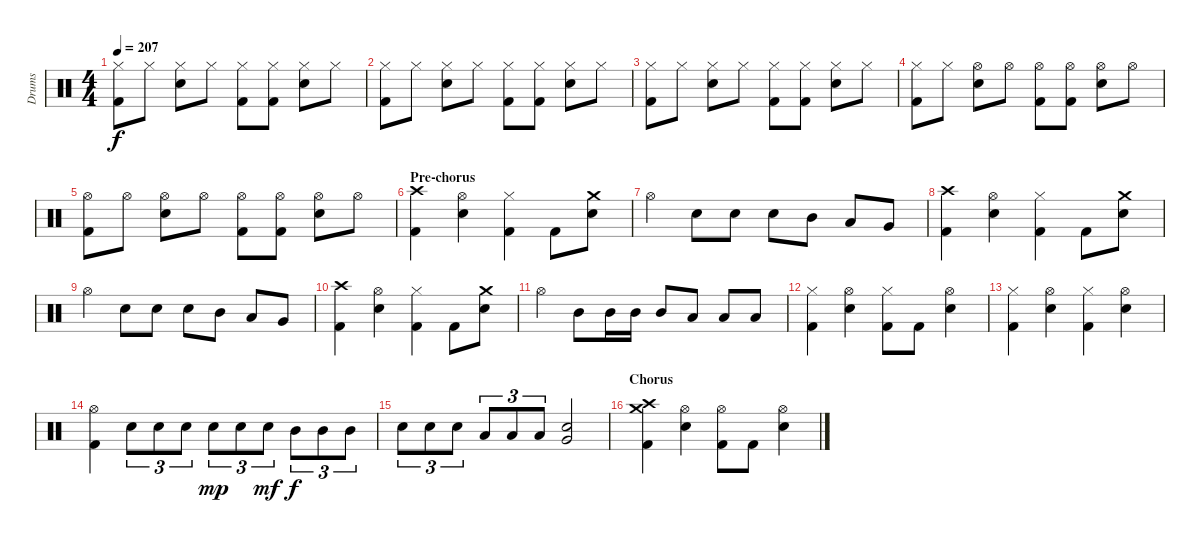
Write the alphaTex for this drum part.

\track ("Drums" "Drums") {instrument percussion}
\staff {score}
\articulation defaults
\ts (4 4)
\tempo 207
\clef neutral
\ks c
("Hi-Hat (closed)" "Kick (hit) 2").8{dy f} "Hi-Hat (closed)".8 ("Hi-Hat (closed)" "Snare (hit) 2").8 "Hi-Hat (closed)".8 ("Hi-Hat (closed)" "Kick (hit) 2").8 ("Hi-Hat (closed)" "Kick (hit) 2").8 ("Hi-Hat (closed)" "Snare (hit) 2").8 "Hi-Hat (closed)".8 |
("Hi-Hat (closed)" "Kick (hit) 2").8 "Hi-Hat (closed)".8 ("Hi-Hat (closed)" "Snare (hit) 2").8 "Hi-Hat (closed)".8 ("Hi-Hat (closed)" "Kick (hit) 2").8 ("Hi-Hat (closed)" "Kick (hit) 2").8 ("Hi-Hat (closed)" "Snare (hit) 2").8 "Hi-Hat (closed)".8 |
("Hi-Hat (closed)" "Kick (hit) 2").8 "Hi-Hat (closed)".8 ("Hi-Hat (closed)" "Snare (hit) 2").8 "Hi-Hat (closed)".8 ("Hi-Hat (closed)" "Kick (hit) 2").8 ("Hi-Hat (closed)" "Kick (hit) 2").8 ("Hi-Hat (closed)" "Snare (hit) 2").8 "Hi-Hat (closed)".8 |
("Hi-Hat (closed)" "Kick (hit) 2").8 "Hi-Hat (closed)".8 ("Hi-Hat (open)" "Snare (hit) 2").8 "Hi-Hat (open)".8 ("Hi-Hat (open)" "Kick (hit) 2").8 ("Hi-Hat (open)" "Kick (hit) 2").8 ("Hi-Hat (open)" "Snare (hit) 2").8 "Hi-Hat (open)".8 |
("Hi-Hat (open)" "Kick (hit) 2").8 "Hi-Hat (open)".8 ("Hi-Hat (open)" "Snare (hit) 2").8 "Hi-Hat (open)".8 ("Hi-Hat (open)" "Kick (hit) 2").8 ("Hi-Hat (open)" "Kick (hit) 2").8 ("Hi-Hat (open)" "Snare (hit) 2").8 "Hi-Hat (open)".8 |
\section ("" "Pre-chorus")
("Crash high (hit)" "Kick (hit) 2").4 ("Hi-Hat (open)" "Snare (hit) 2").4 ("Hi-Hat (closed)" "Kick (hit) 2").4 "Kick (hit) 2".8 ("Crash medium (hit)" "Snare (hit) 2").8 |
"Hi-Hat (open)".4 "Snare (hit) 2".8 "Snare (hit) 2".8 "Snare (hit) 2".8 "Mid Tom (hit)".8 "Low Tom (hit)".8 "Very Low Tom (hit)".8 |
("Crash high (hit)" "Kick (hit) 2").4 ("Hi-Hat (open)" "Snare (hit) 2").4 ("Hi-Hat (closed)" "Kick (hit) 2").4 "Kick (hit) 2".8 ("Crash medium (hit)" "Snare (hit) 2").8 |
"Hi-Hat (open)".4 "Snare (hit) 2".8 "Snare (hit) 2".8 "Snare (hit) 2".8 "Mid Tom (hit)".8 "Low Tom (hit)".8 "Very Low Tom (hit)".8 |
("Crash high (hit)" "Kick (hit) 2").4 ("Hi-Hat (open)" "Snare (hit) 2").4 ("Hi-Hat (closed)" "Kick (hit) 2").4 "Kick (hit) 2".8 ("Crash medium (hit)" "Snare (hit) 2").8 |
"Hi-Hat (open)".4 "Mid Tom (hit)".8 "Mid Tom (hit)".16 "Mid Tom (hit)".16 "Mid Tom (hit)".8 "Low Tom (hit)".8 "Low Tom (hit)".8 "Low Tom (hit)".8 |
("Hi-Hat (closed)" "Kick (hit) 2").4 ("Hi-Hat (open)" "Snare (hit) 2").4 ("Hi-Hat (closed)" "Kick (hit) 2").8 "Kick (hit) 2".8 ("Hi-Hat (open)" "Snare (hit) 2").4 |
("Hi-Hat (closed)" "Kick (hit) 2").4 ("Hi-Hat (open)" "Snare (hit) 2").4 ("Hi-Hat (closed)" "Kick (hit) 2").4 ("Hi-Hat (open)" "Snare (hit) 2").4 |
("Hi-Hat (open)" "Kick (hit) 2").4 "Snare (hit) 2".8{tu (3 2)} "Snare (hit) 2".8{tu (3 2)} "Snare (hit) 2".8{tu (3 2)} "Snare (hit) 2".8{tu (3 2) dy mp} "Snare (hit) 2".8{tu (3 2)} "Snare (hit) 2".8{tu (3 2) dy mf} "Mid Tom (hit)".8{tu (3 2) dy f} "Mid Tom (hit)".8{tu (3 2)} "Mid Tom (hit)".8{tu (3 2)} |
"Snare (hit) 2".8{tu (3 2)} "Snare (hit) 2".8{tu (3 2)} "Snare (hit) 2".8{tu (3 2)} "Low Tom (hit)".8{tu (3 2)} "Low Tom (hit)".8{tu (3 2)} "Low Tom (hit)".8{tu (3 2)} ("Snare (hit) 2" "Very Low Tom (hit)").2 |
\section ("" "Chorus")
("Crash medium (hit)" "Crash high (hit)" "Kick (hit) 2").4 ("Hi-Hat (open)" "Snare (hit) 2").4 ("Hi-Hat (open)" "Kick (hit) 2").8 "Kick (hit) 2".8 ("Hi-Hat (open)" "Snare (hit) 2").4
